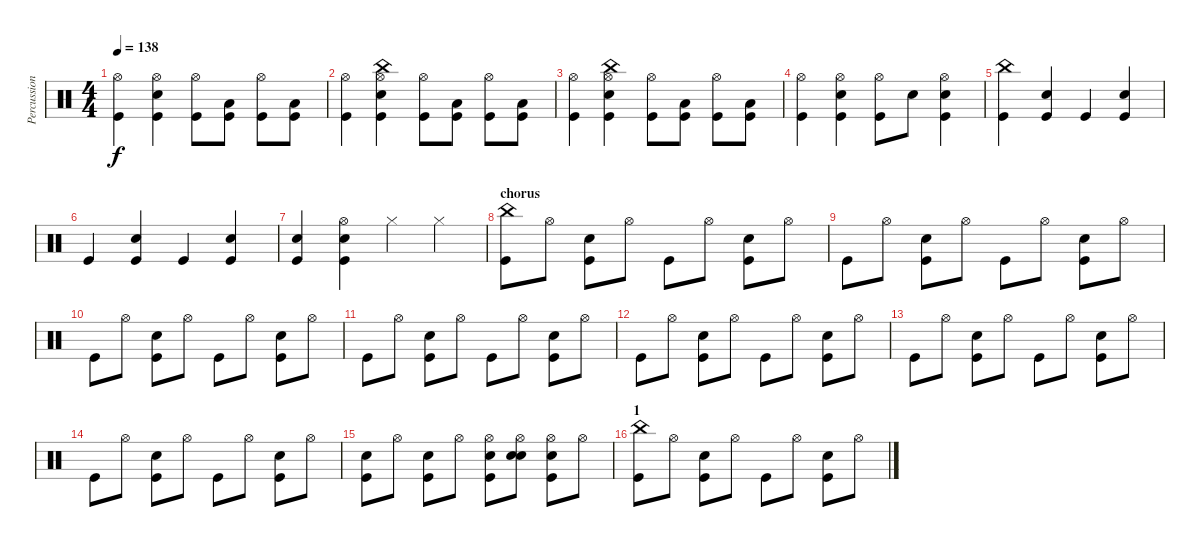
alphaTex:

\track ("Percussion" "Percussion") {instrument percussion}
\staff {score}
\articulation defaults
\ts (4 4)
\tempo 138
\clef neutral
\ks c
("Hi-Hat (open)" "Kick (hit)").4{dy f} ("Hi-Hat (open)" "Snare (hit) 2" "Kick (hit)").4 ("Hi-Hat (open)" "Kick (hit)").8 ("Low Tom (hit)" "Kick (hit)").8 ("Hi-Hat (open)" "Kick (hit)").8 ("Low Tom (hit)" "Kick (hit)").8 |
("Hi-Hat (open)" "Kick (hit)").4 ("China (hit)" "Hi-Hat (open)" "Snare (hit) 2" "Kick (hit)").4 ("Hi-Hat (open)" "Kick (hit)").8 ("Low Tom (hit)" "Kick (hit)").8 ("Hi-Hat (open)" "Kick (hit)").8 ("Low Tom (hit)" "Kick (hit)").8 |
("Hi-Hat (open)" "Kick (hit)").4 ("China (hit)" "Hi-Hat (open)" "Snare (hit) 2" "Kick (hit)").4 ("Hi-Hat (open)" "Kick (hit)").8 ("Low Tom (hit)" "Kick (hit)").8 ("Hi-Hat (open)" "Kick (hit)").8 ("Low Tom (hit)" "Kick (hit)").8 |
("Hi-Hat (open)" "Kick (hit)").4 ("Hi-Hat (open)" "Snare (hit) 2" "Kick (hit)").4 ("Hi-Hat (open)" "Kick (hit)").8 "Snare (hit) 2".8 ("Hi-Hat (open)" "Snare (hit) 2" "Kick (hit)").4 |
("China (hit)" "Kick (hit)").4 ("Snare (hit) 2" "Kick (hit)").4 "Kick (hit)".4 ("Snare (hit) 2" "Kick (hit)").4 |
"Kick (hit)".4 ("Snare (hit) 2" "Kick (hit)").4 "Kick (hit)".4 ("Snare (hit) 2" "Kick (hit)").4 |
("Snare (hit) 2" "Kick (hit)").4 ("Hi-Hat (open)" "Snare (hit) 2" "Kick (hit)").4 "Hi-Hat (closed)".4 "Hi-Hat (closed)".4 |
\section ("" "chorus")
("China (hit)" "Kick (hit)").8 "Hi-Hat (open)".8 ("Snare (hit) 2" "Kick (hit)").8 "Hi-Hat (open)".8 "Kick (hit)".8 "Hi-Hat (open)".8 ("Snare (hit) 2" "Kick (hit)").8 "Hi-Hat (open)".8 |
"Kick (hit)".8 "Hi-Hat (open)".8 ("Snare (hit) 2" "Kick (hit)").8 "Hi-Hat (open)".8 "Kick (hit)".8 "Hi-Hat (open)".8 ("Snare (hit) 2" "Kick (hit)").8 "Hi-Hat (open)".8 |
"Kick (hit)".8 "Hi-Hat (open)".8 ("Snare (hit) 2" "Kick (hit)").8 "Hi-Hat (open)".8 "Kick (hit)".8 "Hi-Hat (open)".8 ("Snare (hit) 2" "Kick (hit)").8 "Hi-Hat (open)".8 |
"Kick (hit)".8 "Hi-Hat (open)".8 ("Snare (hit) 2" "Kick (hit)").8 "Hi-Hat (open)".8 "Kick (hit)".8 "Hi-Hat (open)".8 ("Snare (hit) 2" "Kick (hit)").8 "Hi-Hat (open)".8 |
"Kick (hit)".8 "Hi-Hat (open)".8 ("Snare (hit) 2" "Kick (hit)").8 "Hi-Hat (open)".8 "Kick (hit)".8 "Hi-Hat (open)".8 ("Snare (hit) 2" "Kick (hit)").8 "Hi-Hat (open)".8 |
"Kick (hit)".8 "Hi-Hat (open)".8 ("Snare (hit) 2" "Kick (hit)").8 "Hi-Hat (open)".8 "Kick (hit)".8 "Hi-Hat (open)".8 ("Snare (hit) 2" "Kick (hit)").8 "Hi-Hat (open)".8 |
"Kick (hit)".8 "Hi-Hat (open)".8 ("Snare (hit) 2" "Kick (hit)").8 "Hi-Hat (open)".8 "Kick (hit)".8 "Hi-Hat (open)".8 ("Snare (hit) 2" "Kick (hit)").8 "Hi-Hat (open)".8 |
("Snare (hit) 2" "Kick (hit)").8 "Hi-Hat (open)".8 ("Snare (hit) 2" "Kick (hit)").8 "Hi-Hat (open)".8 ("Hi-Hat (open)" "Snare (hit) 2" "Kick (hit)").8 ("Hi-Hat (open)" "Snare (hit) 2" "Snare (hit) 2").8 ("Hi-Hat (open)" "Snare (hit) 2" "Kick (hit)").8 "Hi-Hat (open)".8 |
\section ("" "1")
("China (hit)" "Kick (hit)").8 "Hi-Hat (open)".8 ("Snare (hit) 2" "Kick (hit)").8 "Hi-Hat (open)".8 "Kick (hit)".8 "Hi-Hat (open)".8 ("Snare (hit) 2" "Kick (hit)").8 "Hi-Hat (open)".8
